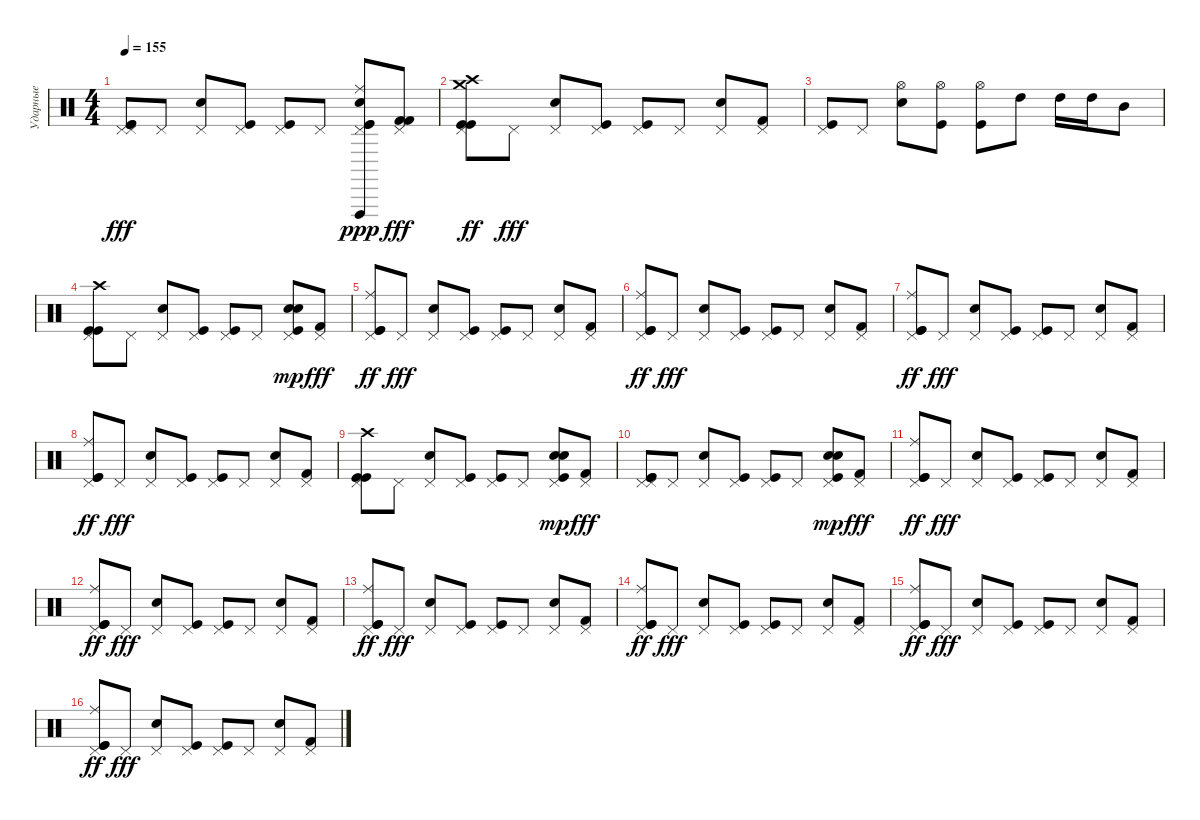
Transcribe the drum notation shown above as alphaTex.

\track ("Ударные" "Ударные") {instrument percussion}
\staff
\articulation defaults
\ts (4 4)
\tempo 155
\clef neutral
\ks c
("Kick (hit)" "Pedal Hi-Hat (hit)" "Kick (hit)" "Pedal Hi-Hat (hit)").8{dy fff} "Pedal Hi-Hat (hit)".8 ("Pedal Hi-Hat (hit)" "Snare (hit) 2").8 ("Pedal Hi-Hat (hit)" "Kick (hit)").8 ("Pedal Hi-Hat (hit)" "Kick (hit)").8 "Pedal Hi-Hat (hit)".8 ("Kick (hit)" "Snare (hit) 2" "Pedal Hi-Hat (hit)" "Ride (middle)" "Vibraslap (hit)" "Kick (hit)").8{dy ppp} ("Kick (hit) 2" "Kick (hit) 2" "Pedal Hi-Hat (hit)").8{dy fff} |
("Crash medium (hit)" "Kick (hit)" "Pedal Hi-Hat (hit)" "Kick (hit)" "Crash high (hit)").8{dy ff} "Pedal Hi-Hat (hit)".8{dy fff} ("Pedal Hi-Hat (hit)" "Snare (hit) 2").8 ("Pedal Hi-Hat (hit)" "Kick (hit)").8 ("Pedal Hi-Hat (hit)" "Kick (hit)").8 "Pedal Hi-Hat (hit)".8 ("Snare (hit) 2" "Pedal Hi-Hat (hit)").8 ("Kick (hit) 2" "Pedal Hi-Hat (hit)").8 |
("Kick (hit)" "Pedal Hi-Hat (hit)").8 "Pedal Hi-Hat (hit)".8 ("Snare (hit) 2" "Hi-Hat (open)").8 ("Kick (hit)" "Hi-Hat (open)").8 ("Kick (hit)" "Hi-Hat (open)").8 "High Tom (hit)".8 "High Tom (hit)".16 "High Tom (hit)".16 "Mid Tom (hit)".8 |
("Kick (hit)" "Pedal Hi-Hat (hit)" "Kick (hit)" "Crash high (hit)").8 "Pedal Hi-Hat (hit)".8 ("Pedal Hi-Hat (hit)" "Snare (hit) 2").8 ("Pedal Hi-Hat (hit)" "Kick (hit)").8 ("Pedal Hi-Hat (hit)" "Kick (hit)").8 "Pedal Hi-Hat (hit)".8 ("Snare (hit) 2" "Pedal Hi-Hat (hit)" "Kick (hit)" "Electric Snare (hit)").8{dy mp} ("Kick (hit) 2" "Pedal Hi-Hat (hit)").8{dy fff} |
("Kick (hit)" "Pedal Hi-Hat (hit)" "Kick (hit)" "Ride (middle)").8{dy ff} "Pedal Hi-Hat (hit)".8{dy fff} ("Pedal Hi-Hat (hit)" "Snare (hit) 2").8 ("Pedal Hi-Hat (hit)" "Kick (hit)").8 ("Pedal Hi-Hat (hit)" "Kick (hit)").8 "Pedal Hi-Hat (hit)".8 ("Snare (hit) 2" "Pedal Hi-Hat (hit)").8 ("Kick (hit) 2" "Pedal Hi-Hat (hit)").8 |
("Kick (hit)" "Pedal Hi-Hat (hit)" "Kick (hit)" "Ride (middle)").8{dy ff} "Pedal Hi-Hat (hit)".8{dy fff} ("Pedal Hi-Hat (hit)" "Snare (hit) 2").8 ("Pedal Hi-Hat (hit)" "Kick (hit)").8 ("Pedal Hi-Hat (hit)" "Kick (hit)").8 "Pedal Hi-Hat (hit)".8 ("Snare (hit) 2" "Pedal Hi-Hat (hit)").8 ("Kick (hit) 2" "Pedal Hi-Hat (hit)").8 |
("Kick (hit)" "Pedal Hi-Hat (hit)" "Kick (hit)" "Ride (middle)").8{dy ff} "Pedal Hi-Hat (hit)".8{dy fff} ("Pedal Hi-Hat (hit)" "Snare (hit) 2").8 ("Pedal Hi-Hat (hit)" "Kick (hit)").8 ("Pedal Hi-Hat (hit)" "Kick (hit)").8 "Pedal Hi-Hat (hit)".8 ("Snare (hit) 2" "Pedal Hi-Hat (hit)").8 ("Kick (hit) 2" "Pedal Hi-Hat (hit)").8 |
("Kick (hit)" "Pedal Hi-Hat (hit)" "Kick (hit)" "Ride (middle)").8{dy ff} "Pedal Hi-Hat (hit)".8{dy fff} ("Pedal Hi-Hat (hit)" "Snare (hit) 2").8 ("Pedal Hi-Hat (hit)" "Kick (hit)").8 ("Pedal Hi-Hat (hit)" "Kick (hit)").8 "Pedal Hi-Hat (hit)".8 ("Snare (hit) 2" "Pedal Hi-Hat (hit)").8 ("Kick (hit) 2" "Pedal Hi-Hat (hit)").8 |
("Kick (hit)" "Pedal Hi-Hat (hit)" "Kick (hit)" "Crash high (hit)").8 "Pedal Hi-Hat (hit)".8 ("Pedal Hi-Hat (hit)" "Snare (hit) 2").8 ("Pedal Hi-Hat (hit)" "Kick (hit)").8 ("Pedal Hi-Hat (hit)" "Kick (hit)").8 "Pedal Hi-Hat (hit)".8 ("Snare (hit) 2" "Pedal Hi-Hat (hit)" "Kick (hit)" "Electric Snare (hit)").8{dy mp} ("Kick (hit) 2" "Pedal Hi-Hat (hit)").8{dy fff} |
("Kick (hit)" "Pedal Hi-Hat (hit)" "Kick (hit)" "Pedal Hi-Hat (hit)").8 "Pedal Hi-Hat (hit)".8 ("Pedal Hi-Hat (hit)" "Snare (hit) 2").8 ("Pedal Hi-Hat (hit)" "Kick (hit)").8 ("Pedal Hi-Hat (hit)" "Kick (hit)").8 "Pedal Hi-Hat (hit)".8 ("Snare (hit) 2" "Pedal Hi-Hat (hit)" "Kick (hit)" "Electric Snare (hit)").8{dy mp} ("Kick (hit) 2" "Pedal Hi-Hat (hit)").8{dy fff} |
("Kick (hit)" "Pedal Hi-Hat (hit)" "Kick (hit)" "Ride (middle)").8{dy ff} "Pedal Hi-Hat (hit)".8{dy fff} ("Pedal Hi-Hat (hit)" "Snare (hit) 2").8 ("Pedal Hi-Hat (hit)" "Kick (hit)").8 ("Pedal Hi-Hat (hit)" "Kick (hit)").8 "Pedal Hi-Hat (hit)".8 ("Snare (hit) 2" "Pedal Hi-Hat (hit)").8 ("Kick (hit) 2" "Pedal Hi-Hat (hit)").8 |
("Kick (hit)" "Pedal Hi-Hat (hit)" "Kick (hit)" "Ride (middle)").8{dy ff} "Pedal Hi-Hat (hit)".8{dy fff} ("Pedal Hi-Hat (hit)" "Snare (hit) 2").8 ("Pedal Hi-Hat (hit)" "Kick (hit)").8 ("Pedal Hi-Hat (hit)" "Kick (hit)").8 "Pedal Hi-Hat (hit)".8 ("Snare (hit) 2" "Pedal Hi-Hat (hit)").8 ("Kick (hit) 2" "Pedal Hi-Hat (hit)").8 |
("Kick (hit)" "Pedal Hi-Hat (hit)" "Kick (hit)" "Ride (middle)").8{dy ff} "Pedal Hi-Hat (hit)".8{dy fff} ("Pedal Hi-Hat (hit)" "Snare (hit) 2").8 ("Pedal Hi-Hat (hit)" "Kick (hit)").8 ("Pedal Hi-Hat (hit)" "Kick (hit)").8 "Pedal Hi-Hat (hit)".8 ("Snare (hit) 2" "Pedal Hi-Hat (hit)").8 ("Kick (hit) 2" "Pedal Hi-Hat (hit)").8 |
("Kick (hit)" "Pedal Hi-Hat (hit)" "Kick (hit)" "Ride (middle)").8{dy ff} "Pedal Hi-Hat (hit)".8{dy fff} ("Pedal Hi-Hat (hit)" "Snare (hit) 2").8 ("Pedal Hi-Hat (hit)" "Kick (hit)").8 ("Pedal Hi-Hat (hit)" "Kick (hit)").8 "Pedal Hi-Hat (hit)".8 ("Snare (hit) 2" "Pedal Hi-Hat (hit)").8 ("Kick (hit) 2" "Pedal Hi-Hat (hit)").8 |
("Kick (hit)" "Pedal Hi-Hat (hit)" "Kick (hit)" "Ride (middle)").8{dy ff} "Pedal Hi-Hat (hit)".8{dy fff} ("Pedal Hi-Hat (hit)" "Snare (hit) 2").8 ("Pedal Hi-Hat (hit)" "Kick (hit)").8 ("Pedal Hi-Hat (hit)" "Kick (hit)").8 "Pedal Hi-Hat (hit)".8 ("Snare (hit) 2" "Pedal Hi-Hat (hit)").8 ("Kick (hit) 2" "Pedal Hi-Hat (hit)").8 |
("Kick (hit)" "Pedal Hi-Hat (hit)" "Kick (hit)" "Ride (middle)").8{dy ff} "Pedal Hi-Hat (hit)".8{dy fff} ("Pedal Hi-Hat (hit)" "Snare (hit) 2").8 ("Pedal Hi-Hat (hit)" "Kick (hit)").8 ("Pedal Hi-Hat (hit)" "Kick (hit)").8 "Pedal Hi-Hat (hit)".8 ("Snare (hit) 2" "Pedal Hi-Hat (hit)").8 ("Kick (hit) 2" "Pedal Hi-Hat (hit)").8
